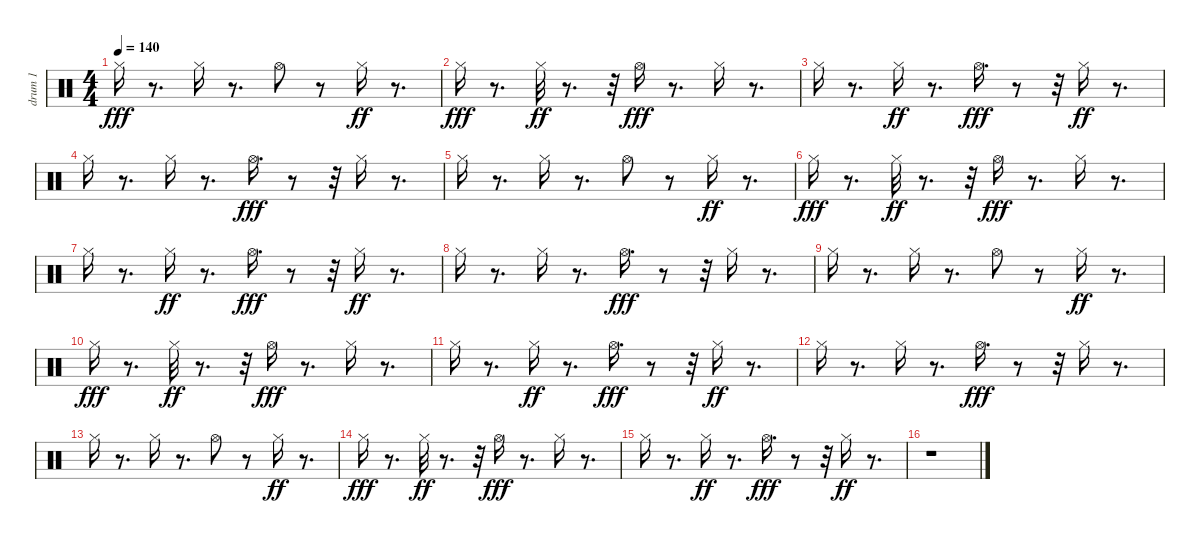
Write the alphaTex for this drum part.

\track ("drum 1" "drum 1") {instrument percussion}
\staff {score}
\articulation defaults
\ts (4 4)
\tempo 140
\clef neutral
\ks c "Hi-Hat (closed)".16{dy fff}
r.8{d} "Hi-Hat (closed)".16 r.8{d} "Hi-Hat (open)".8 r.8 "Hi-Hat (closed)".16{dy ff} r.8{d} |
"Hi-Hat (closed)".16{dy fff} r.8{d} "Hi-Hat (closed)".32{dy ff} r.8{d} r.32 "Hi-Hat (open)".16{dy fff} r.8{d} "Hi-Hat (closed)".16 r.8{d} |
"Hi-Hat (closed)".16 r.8{d} "Hi-Hat (closed)".16{dy ff} r.8{d} "Hi-Hat (open)".16{d dy fff} r.8 r.32 "Hi-Hat (closed)".16{dy ff} r.8{d} |
"Hi-Hat (closed)".16 r.8{d} "Hi-Hat (closed)".16 r.8{d} "Hi-Hat (open)".16{d dy fff} r.8 r.32 "Hi-Hat (closed)".16 r.8{d} |
"Hi-Hat (closed)".16 r.8{d} "Hi-Hat (closed)".16 r.8{d} "Hi-Hat (open)".8 r.8 "Hi-Hat (closed)".16{dy ff} r.8{d} |
"Hi-Hat (closed)".16{dy fff} r.8{d} "Hi-Hat (closed)".32{dy ff} r.8{d} r.32 "Hi-Hat (open)".16{dy fff} r.8{d} "Hi-Hat (closed)".16 r.8{d} |
"Hi-Hat (closed)".16 r.8{d} "Hi-Hat (closed)".16{dy ff} r.8{d} "Hi-Hat (open)".16{d dy fff} r.8 r.32 "Hi-Hat (closed)".16{dy ff} r.8{d} |
"Hi-Hat (closed)".16 r.8{d} "Hi-Hat (closed)".16 r.8{d} "Hi-Hat (open)".16{d dy fff} r.8 r.32 "Hi-Hat (closed)".16 r.8{d} |
"Hi-Hat (closed)".16 r.8{d} "Hi-Hat (closed)".16 r.8{d} "Hi-Hat (open)".8 r.8 "Hi-Hat (closed)".16{dy ff} r.8{d} |
"Hi-Hat (closed)".16{dy fff} r.8{d} "Hi-Hat (closed)".32{dy ff} r.8{d} r.32 "Hi-Hat (open)".16{dy fff} r.8{d} "Hi-Hat (closed)".16 r.8{d} |
"Hi-Hat (closed)".16 r.8{d} "Hi-Hat (closed)".16{dy ff} r.8{d} "Hi-Hat (open)".16{d dy fff} r.8 r.32 "Hi-Hat (closed)".16{dy ff} r.8{d} |
"Hi-Hat (closed)".16 r.8{d} "Hi-Hat (closed)".16 r.8{d} "Hi-Hat (open)".16{d dy fff} r.8 r.32 "Hi-Hat (closed)".16 r.8{d} |
"Hi-Hat (closed)".16 r.8{d} "Hi-Hat (closed)".16 r.8{d} "Hi-Hat (open)".8 r.8 "Hi-Hat (closed)".16{dy ff} r.8{d} |
"Hi-Hat (closed)".16{dy fff} r.8{d} "Hi-Hat (closed)".32{dy ff} r.8{d} r.32 "Hi-Hat (open)".16{dy fff} r.8{d} "Hi-Hat (closed)".16 r.8{d} |
"Hi-Hat (closed)".16 r.8{d} "Hi-Hat (closed)".16{dy ff} r.8{d} "Hi-Hat (open)".16{d dy fff} r.8 r.32 "Hi-Hat (closed)".16{dy ff} r.8{d} |
r.1
